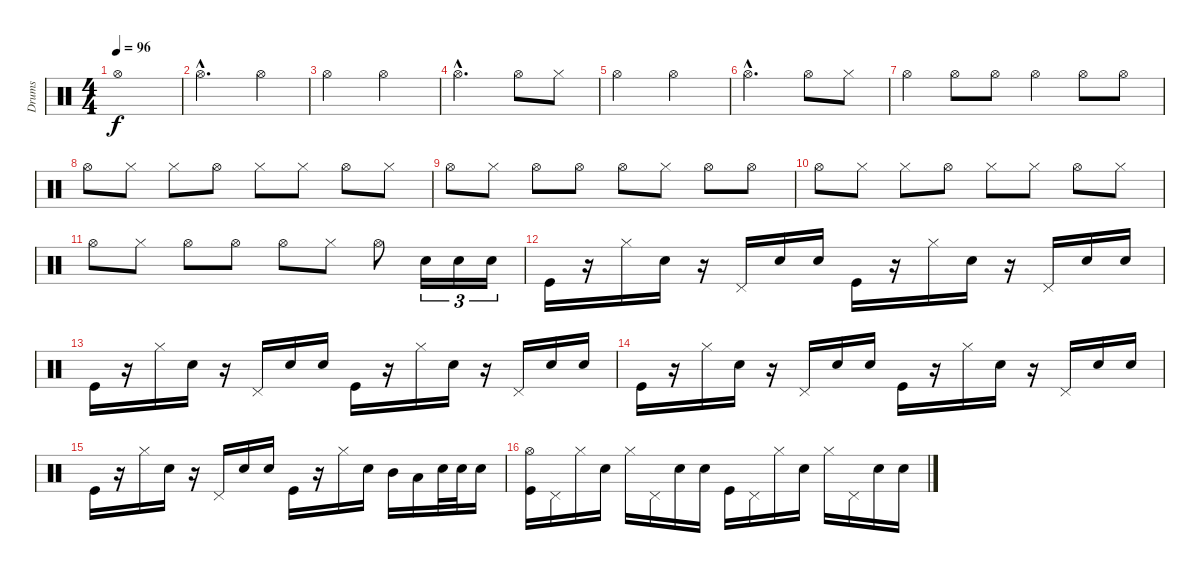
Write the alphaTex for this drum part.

\track ("Drums" "Drums") {instrument percussion}
\staff {score}
\articulation defaults
\ts (4 4)
\tempo 96
\clef neutral
\ks c "Hi-Hat (open)".1{dy f}
|
"Hi-Hat (open)"{hac}.2{d} "Hi-Hat (open)".4 |
"Hi-Hat (open)".2 "Hi-Hat (open)".2 |
"Hi-Hat (open)"{hac}.2{d} "Hi-Hat (open)".8 "Hi-Hat (closed)".8 |
"Hi-Hat (open)".2 "Hi-Hat (open)".2 |
"Hi-Hat (open)"{hac}.2{d} "Hi-Hat (open)".8 "Hi-Hat (closed)".8 |
"Hi-Hat (open)".4 "Hi-Hat (open)".8 "Hi-Hat (open)".8 "Hi-Hat (open)".4 "Hi-Hat (open)".8 "Hi-Hat (open)".8 |
"Hi-Hat (open)".8 "Hi-Hat (closed)".8 "Hi-Hat (closed)".8 "Hi-Hat (open)".8 "Hi-Hat (closed)".8 "Hi-Hat (closed)".8 "Hi-Hat (open)".8 "Hi-Hat (closed)".8 |
"Hi-Hat (open)".8 "Hi-Hat (closed)".8 "Hi-Hat (open)".8 "Hi-Hat (open)".8 "Hi-Hat (open)".8 "Hi-Hat (closed)".8 "Hi-Hat (open)".8 "Hi-Hat (open)".8 |
"Hi-Hat (open)".8 "Hi-Hat (closed)".8 "Hi-Hat (closed)".8 "Hi-Hat (open)".8 "Hi-Hat (closed)".8 "Hi-Hat (closed)".8 "Hi-Hat (open)".8 "Hi-Hat (closed)".8 |
"Hi-Hat (open)".8 "Hi-Hat (closed)".8 "Hi-Hat (open)".8 "Hi-Hat (open)".8 "Hi-Hat (open)".8 "Hi-Hat (closed)".8 "Hi-Hat (open)".8 "Snare (hit) 2".16{tu (3 2)} "Snare (hit) 2".16{tu (3 2)} "Snare (hit) 2".16{tu (3 2)} |
"Kick (hit)".16 r.16 "Hi-Hat (closed)".16 "Snare (hit) 2".16 r.16 "Pedal Hi-Hat (hit)".16 "Snare (hit) 2".16 "Snare (hit) 2".16 "Kick (hit)".16 r.16 "Hi-Hat (closed)".16 "Snare (hit) 2".16 r.16 "Pedal Hi-Hat (hit)".16 "Snare (hit) 2".16 "Snare (hit) 2".16 |
"Kick (hit)".16 r.16 "Hi-Hat (closed)".16 "Snare (hit) 2".16 r.16 "Pedal Hi-Hat (hit)".16 "Snare (hit) 2".16 "Snare (hit) 2".16 "Kick (hit)".16 r.16 "Hi-Hat (closed)".16 "Snare (hit) 2".16 r.16 "Pedal Hi-Hat (hit)".16 "Snare (hit) 2".16 "Snare (hit) 2".16 |
"Kick (hit)".16 r.16 "Hi-Hat (closed)".16 "Snare (hit) 2".16 r.16 "Pedal Hi-Hat (hit)".16 "Snare (hit) 2".16 "Snare (hit) 2".16 "Kick (hit)".16 r.16 "Hi-Hat (closed)".16 "Snare (hit) 2".16 r.16 "Pedal Hi-Hat (hit)".16 "Snare (hit) 2".16 "Snare (hit) 2".16 |
"Kick (hit)".16 r.16 "Hi-Hat (closed)".16 "Snare (hit) 2".16 r.16 "Pedal Hi-Hat (hit)".16 "Snare (hit) 2".16 "Snare (hit) 2".16 "Kick (hit)".16 r.16 "Hi-Hat (closed)".16 "Snare (hit) 2".16 "Mid Tom (hit)".16 "Low Tom (hit)".16 "Snare (hit) 2".32 "Snare (hit) 2".32 "Snare (hit) 2".16 |
("Hi-Hat (open)" "Kick (hit)").16 "Pedal Hi-Hat (hit)".16 "Hi-Hat (closed)".16 "Snare (hit) 2".16 "Hi-Hat (closed)".16 "Pedal Hi-Hat (hit)".16 "Snare (hit) 2".16 "Snare (hit) 2".16 "Kick (hit)".16 "Pedal Hi-Hat (hit)".16 "Hi-Hat (closed)".16 "Snare (hit) 2".16 "Hi-Hat (closed)".16 "Pedal Hi-Hat (hit)".16 "Snare (hit) 2".16 "Snare (hit) 2".16
